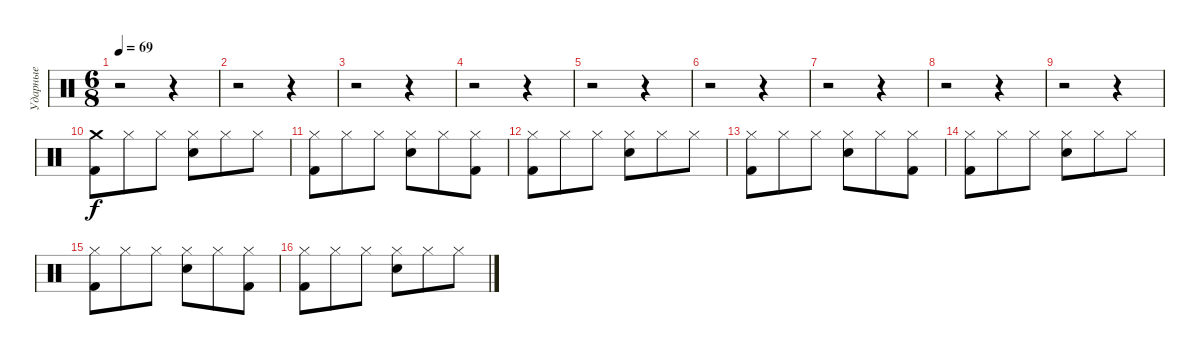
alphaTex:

\track ("Ударные" "Ударные") {instrument percussion}
\staff {score}
\articulation defaults
\ts (6 8)
\tempo 69
\clef neutral
\ks c
r.2{dy f} r.4 |
r.2 r.4 |
r.2 r.4 |
r.2 r.4 |
r.2 r.4 |
r.2 r.4 |
r.2 r.4 |
r.2 r.4 |
r.2 r.4 |
("Crash medium (hit)" "Kick (hit) 2").8 "Hi-Hat (closed)".8 "Hi-Hat (closed)".8 ("Hi-Hat (closed)" "Snare (hit) 2").8 "Hi-Hat (closed)".8 "Hi-Hat (closed)".8 |
("Hi-Hat (closed)" "Kick (hit) 2").8 "Hi-Hat (closed)".8 "Hi-Hat (closed)".8 ("Hi-Hat (closed)" "Snare (hit) 2").8 "Hi-Hat (closed)".8 ("Hi-Hat (closed)" "Kick (hit) 2").8 |
("Hi-Hat (closed)" "Kick (hit) 2").8 "Hi-Hat (closed)".8 "Hi-Hat (closed)".8 ("Hi-Hat (closed)" "Snare (hit) 2").8 "Hi-Hat (closed)".8 "Hi-Hat (closed)".8 |
("Hi-Hat (closed)" "Kick (hit) 2").8 "Hi-Hat (closed)".8 "Hi-Hat (closed)".8 ("Hi-Hat (closed)" "Snare (hit) 2").8 "Hi-Hat (closed)".8 ("Hi-Hat (closed)" "Kick (hit) 2").8 |
("Hi-Hat (closed)" "Kick (hit) 2").8 "Hi-Hat (closed)".8 "Hi-Hat (closed)".8 ("Hi-Hat (closed)" "Snare (hit) 2").8 "Hi-Hat (closed)".8 "Hi-Hat (closed)".8 |
("Hi-Hat (closed)" "Kick (hit) 2").8 "Hi-Hat (closed)".8 "Hi-Hat (closed)".8 ("Hi-Hat (closed)" "Snare (hit) 2").8 "Hi-Hat (closed)".8 ("Hi-Hat (closed)" "Kick (hit) 2").8 |
("Hi-Hat (closed)" "Kick (hit) 2").8 "Hi-Hat (closed)".8 "Hi-Hat (closed)".8 ("Hi-Hat (closed)" "Snare (hit) 2").8 "Hi-Hat (closed)".8 "Hi-Hat (closed)".8
